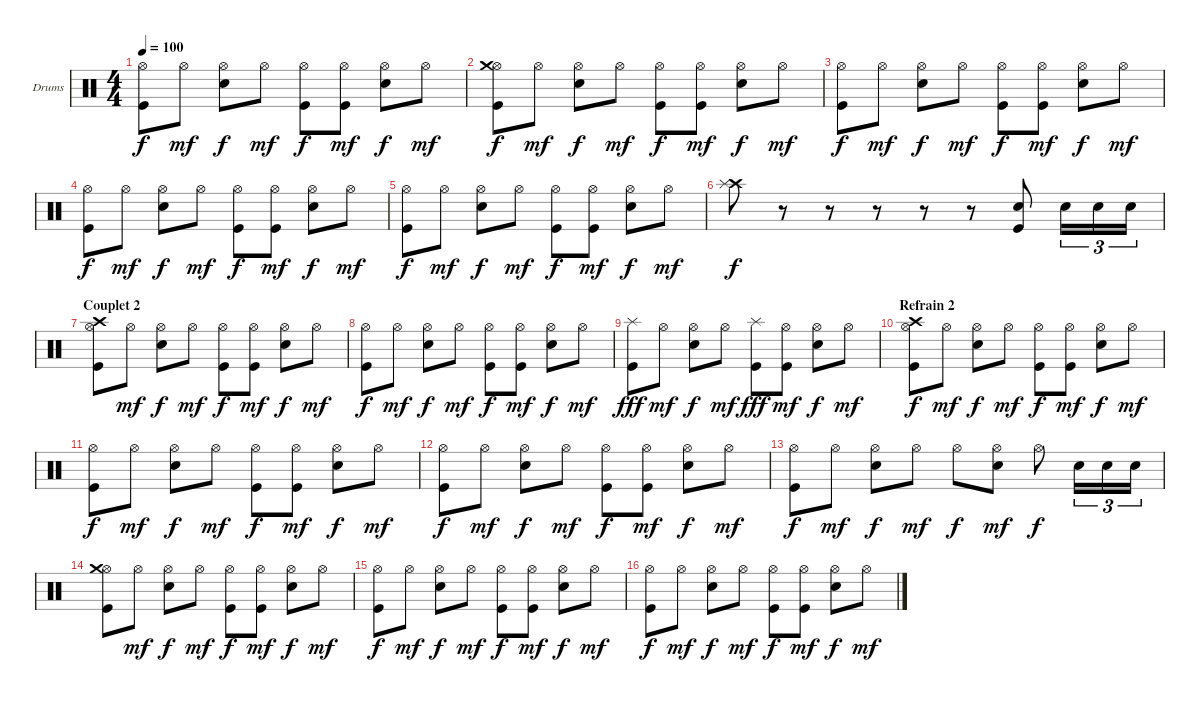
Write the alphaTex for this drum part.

\bracketExtendMode groupsimilarinstruments
\firstSystemTrackNameOrientation horizontal
\otherSystemsTrackNameOrientation horizontal
\track ("Drumkit" "Drums") {instrument percussion}
\staff {score}
\articulation defaults
\ts (4 4)
\tempo 100
\clef neutral
\ks c
("Hi-Hat (open)" "Kick (hit)").8{dy f} "Hi-Hat (open)".8{dy mf} ("Hi-Hat (open)" "Snare (hit) 2").8{dy f} "Hi-Hat (open)".8{dy mf} ("Hi-Hat (open)" "Kick (hit)").8{dy f} ("Hi-Hat (open)" "Kick (hit)").8{dy mf} ("Hi-Hat (open)" "Snare (hit) 2").8{dy f} "Hi-Hat (open)".8{dy mf} |
("Hi-Hat (open)" "Crash medium (hit)" "Kick (hit)").8{dy f} "Hi-Hat (open)".8{dy mf} ("Hi-Hat (open)" "Snare (hit) 2").8{dy f} "Hi-Hat (open)".8{dy mf} ("Hi-Hat (open)" "Kick (hit)").8{dy f} ("Hi-Hat (open)" "Kick (hit)").8{dy mf} ("Hi-Hat (open)" "Snare (hit) 2").8{dy f} "Hi-Hat (open)".8{dy mf} |
("Hi-Hat (open)" "Kick (hit)").8{dy f} "Hi-Hat (open)".8{dy mf} ("Hi-Hat (open)" "Snare (hit) 2").8{dy f} "Hi-Hat (open)".8{dy mf} ("Hi-Hat (open)" "Kick (hit)").8{dy f} ("Hi-Hat (open)" "Kick (hit)").8{dy mf} ("Hi-Hat (open)" "Snare (hit) 2").8{dy f} "Hi-Hat (open)".8{dy mf} |
("Hi-Hat (open)" "Kick (hit)").8{dy f} "Hi-Hat (open)".8{dy mf} ("Hi-Hat (open)" "Snare (hit) 2").8{dy f} "Hi-Hat (open)".8{dy mf} ("Hi-Hat (open)" "Kick (hit)").8{dy f} ("Hi-Hat (open)" "Kick (hit)").8{dy mf} ("Hi-Hat (open)" "Snare (hit) 2").8{dy f} "Hi-Hat (open)".8{dy mf} |
("Hi-Hat (open)" "Kick (hit)").8{dy f} "Hi-Hat (open)".8{dy mf} ("Hi-Hat (open)" "Snare (hit) 2").8{dy f} "Hi-Hat (open)".8{dy mf} ("Hi-Hat (open)" "Kick (hit)").8{dy f} ("Hi-Hat (open)" "Kick (hit)").8{dy mf} ("Hi-Hat (open)" "Snare (hit) 2").8{dy f} "Hi-Hat (open)".8{dy mf} |
("Crash high (hit)" "Splash (hit)").8{dy f} r.8 r.8 r.8 r.8 r.8 ("Snare (hit) 2" "Kick (hit)").8 "Snare (hit) 2".16{tu (3 2)} "Snare (hit) 2".16{tu (3 2)} "Snare (hit) 2".16{tu (3 2)} |
\section ("" "Couplet 2")
("Hi-Hat (open)" "Crash high (hit)" "Kick (hit)").8 "Hi-Hat (open)".8{dy mf} ("Hi-Hat (open)" "Snare (hit) 2").8{dy f} "Hi-Hat (open)".8{dy mf} ("Hi-Hat (open)" "Kick (hit)").8{dy f} ("Hi-Hat (open)" "Kick (hit)").8{dy mf} ("Hi-Hat (open)" "Snare (hit) 2").8{dy f} "Hi-Hat (open)".8{dy mf} |
("Hi-Hat (open)" "Kick (hit)").8{dy f} "Hi-Hat (open)".8{dy mf} ("Hi-Hat (open)" "Snare (hit) 2").8{dy f} "Hi-Hat (open)".8{dy mf} ("Hi-Hat (open)" "Kick (hit)").8{dy f} ("Hi-Hat (open)" "Kick (hit)").8{dy mf} ("Hi-Hat (open)" "Snare (hit) 2").8{dy f} "Hi-Hat (open)".8{dy mf} |
("Splash (hit)" "Kick (hit)").8{dy fff} "Hi-Hat (open)".8{dy mf} ("Hi-Hat (open)" "Snare (hit) 2").8{dy f} "Hi-Hat (open)".8{dy mf} ("Splash (hit)" "Kick (hit)").8{dy fff} ("Hi-Hat (open)" "Kick (hit)").8{dy mf} ("Hi-Hat (open)" "Snare (hit) 2").8{dy f} "Hi-Hat (open)".8{dy mf} |
\section ("" "Refrain 2")
("Hi-Hat (open)" "Crash high (hit)" "Kick (hit)").8{dy f} "Hi-Hat (open)".8{dy mf} ("Hi-Hat (open)" "Snare (hit) 2").8{dy f} "Hi-Hat (open)".8{dy mf} ("Hi-Hat (open)" "Kick (hit)").8{dy f} ("Hi-Hat (open)" "Kick (hit)").8{dy mf} ("Hi-Hat (open)" "Snare (hit) 2").8{dy f} "Hi-Hat (open)".8{dy mf} |
("Hi-Hat (open)" "Kick (hit)").8{dy f} "Hi-Hat (open)".8{dy mf} ("Hi-Hat (open)" "Snare (hit) 2").8{dy f} "Hi-Hat (open)".8{dy mf} ("Hi-Hat (open)" "Kick (hit)").8{dy f} ("Hi-Hat (open)" "Kick (hit)").8{dy mf} ("Hi-Hat (open)" "Snare (hit) 2").8{dy f} "Hi-Hat (open)".8{dy mf} |
("Hi-Hat (open)" "Kick (hit)").8{dy f} "Hi-Hat (open)".8{dy mf} ("Hi-Hat (open)" "Snare (hit) 2").8{dy f} "Hi-Hat (open)".8{dy mf} ("Hi-Hat (open)" "Kick (hit)").8{dy f} ("Hi-Hat (open)" "Kick (hit)").8{dy mf} ("Hi-Hat (open)" "Snare (hit) 2").8{dy f} "Hi-Hat (open)".8{dy mf} |
("Hi-Hat (open)" "Kick (hit)").8{dy f} "Hi-Hat (open)".8{dy mf} ("Hi-Hat (open)" "Snare (hit) 2").8{dy f} "Hi-Hat (open)".8{dy mf} "Hi-Hat (open)".8{dy f} ("Hi-Hat (open)" "Snare (hit) 2").8{dy mf} "Hi-Hat (open)".8{dy f} "Snare (hit) 2".16{tu (3 2)} "Snare (hit) 2".16{tu (3 2)} "Snare (hit) 2".16{tu (3 2)} |
("Hi-Hat (open)" "Crash medium (hit)" "Kick (hit)").8 "Hi-Hat (open)".8{dy mf} ("Hi-Hat (open)" "Snare (hit) 2").8{dy f} "Hi-Hat (open)".8{dy mf} ("Hi-Hat (open)" "Kick (hit)").8{dy f} ("Hi-Hat (open)" "Kick (hit)").8{dy mf} ("Hi-Hat (open)" "Snare (hit) 2").8{dy f} "Hi-Hat (open)".8{dy mf} |
("Hi-Hat (open)" "Kick (hit)").8{dy f} "Hi-Hat (open)".8{dy mf} ("Hi-Hat (open)" "Snare (hit) 2").8{dy f} "Hi-Hat (open)".8{dy mf} ("Hi-Hat (open)" "Kick (hit)").8{dy f} ("Hi-Hat (open)" "Kick (hit)").8{dy mf} ("Hi-Hat (open)" "Snare (hit) 2").8{dy f} "Hi-Hat (open)".8{dy mf} |
("Hi-Hat (open)" "Kick (hit)").8{dy f} "Hi-Hat (open)".8{dy mf} ("Hi-Hat (open)" "Snare (hit) 2").8{dy f} "Hi-Hat (open)".8{dy mf} ("Hi-Hat (open)" "Kick (hit)").8{dy f} ("Hi-Hat (open)" "Kick (hit)").8{dy mf} ("Hi-Hat (open)" "Snare (hit) 2").8{dy f} "Hi-Hat (open)".8{dy mf}
